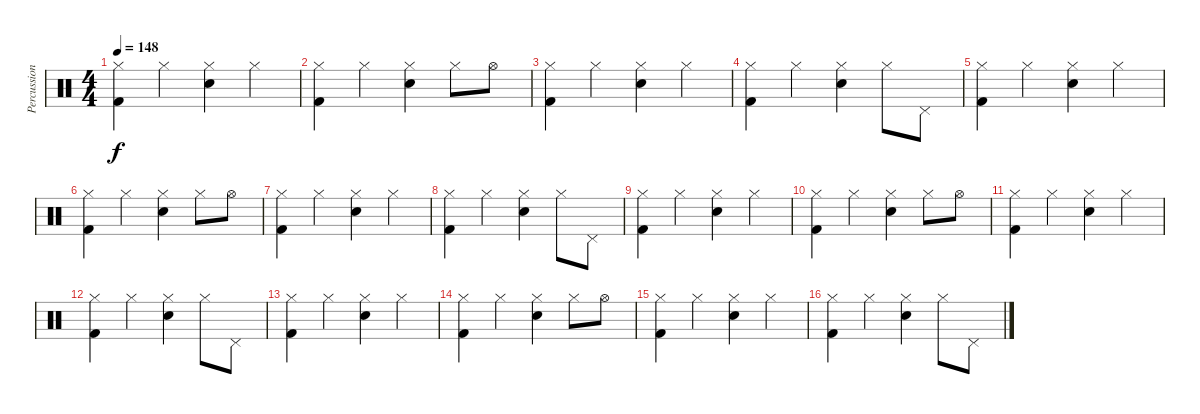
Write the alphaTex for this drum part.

\track ("Percussions" "Percussion") {instrument percussion}
\staff {score}
\articulation defaults
\ts (4 4)
\tempo 148
\clef neutral
\ks c
("Hi-Hat (closed)" "Kick (hit) 2").4{dy f} "Hi-Hat (closed)".4 ("Hi-Hat (closed)" "Snare (hit) 2").4 "Hi-Hat (closed)".4 |
("Hi-Hat (closed)" "Kick (hit) 2").4 "Hi-Hat (closed)".4 ("Hi-Hat (closed)" "Snare (hit) 2").4 "Hi-Hat (closed)".8 "Hi-Hat (open)".8 |
("Hi-Hat (closed)" "Kick (hit) 2").4 "Hi-Hat (closed)".4 ("Hi-Hat (closed)" "Snare (hit) 2").4 "Hi-Hat (closed)".4 |
("Hi-Hat (closed)" "Kick (hit) 2").4 "Hi-Hat (closed)".4 ("Hi-Hat (closed)" "Snare (hit) 2").4 "Hi-Hat (closed)".8 "Pedal Hi-Hat (hit)".8 |
("Hi-Hat (closed)" "Kick (hit) 2").4 "Hi-Hat (closed)".4 ("Hi-Hat (closed)" "Snare (hit) 2").4 "Hi-Hat (closed)".4 |
("Hi-Hat (closed)" "Kick (hit) 2").4 "Hi-Hat (closed)".4 ("Hi-Hat (closed)" "Snare (hit) 2").4 "Hi-Hat (closed)".8 "Hi-Hat (open)".8 |
("Hi-Hat (closed)" "Kick (hit) 2").4 "Hi-Hat (closed)".4 ("Hi-Hat (closed)" "Snare (hit) 2").4 "Hi-Hat (closed)".4 |
("Hi-Hat (closed)" "Kick (hit) 2").4 "Hi-Hat (closed)".4 ("Hi-Hat (closed)" "Snare (hit) 2").4 "Hi-Hat (closed)".8 "Pedal Hi-Hat (hit)".8 |
("Hi-Hat (closed)" "Kick (hit) 2").4 "Hi-Hat (closed)".4 ("Hi-Hat (closed)" "Snare (hit) 2").4 "Hi-Hat (closed)".4 |
("Hi-Hat (closed)" "Kick (hit) 2").4 "Hi-Hat (closed)".4 ("Hi-Hat (closed)" "Snare (hit) 2").4 "Hi-Hat (closed)".8 "Hi-Hat (open)".8 |
("Hi-Hat (closed)" "Kick (hit) 2").4 "Hi-Hat (closed)".4 ("Hi-Hat (closed)" "Snare (hit) 2").4 "Hi-Hat (closed)".4 |
("Hi-Hat (closed)" "Kick (hit) 2").4 "Hi-Hat (closed)".4 ("Hi-Hat (closed)" "Snare (hit) 2").4 "Hi-Hat (closed)".8 "Pedal Hi-Hat (hit)".8 |
("Hi-Hat (closed)" "Kick (hit) 2").4 "Hi-Hat (closed)".4 ("Hi-Hat (closed)" "Snare (hit) 2").4 "Hi-Hat (closed)".4 |
("Hi-Hat (closed)" "Kick (hit) 2").4 "Hi-Hat (closed)".4 ("Hi-Hat (closed)" "Snare (hit) 2").4 "Hi-Hat (closed)".8 "Hi-Hat (open)".8 |
("Hi-Hat (closed)" "Kick (hit) 2").4 "Hi-Hat (closed)".4 ("Hi-Hat (closed)" "Snare (hit) 2").4 "Hi-Hat (closed)".4 |
("Hi-Hat (closed)" "Kick (hit) 2").4 "Hi-Hat (closed)".4 ("Hi-Hat (closed)" "Snare (hit) 2").4 "Hi-Hat (closed)".8 "Pedal Hi-Hat (hit)".8
